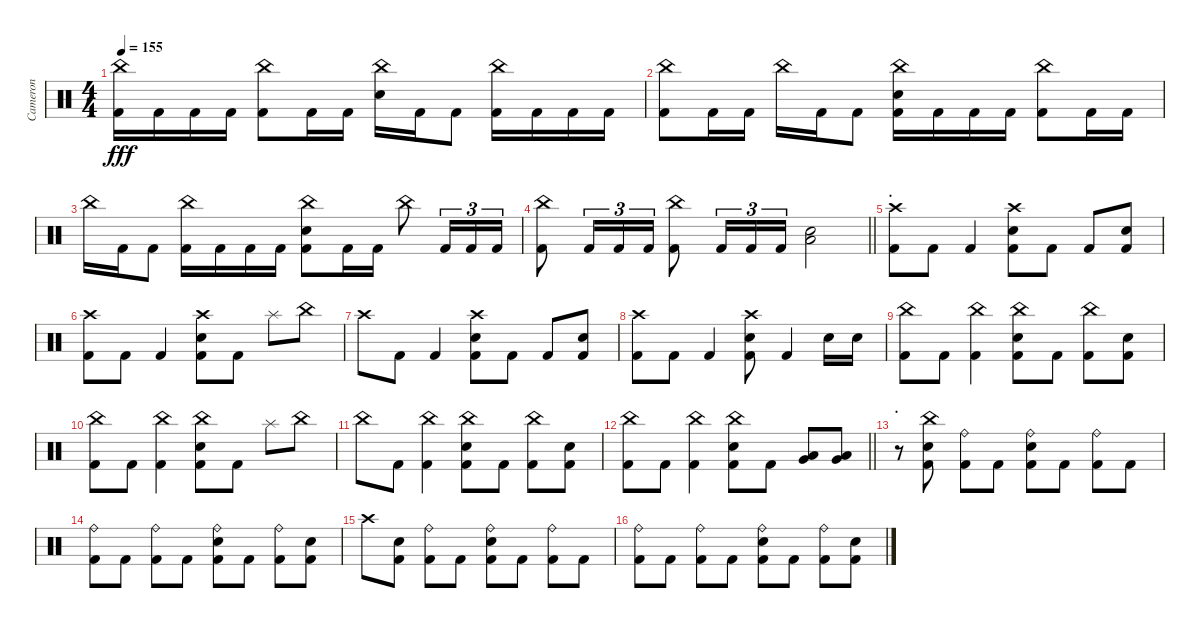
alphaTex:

\track ("Cameron" "Cameron") {instrument percussion}
\staff {score}
\articulation defaults
\ts (4 4)
\tempo 155
\clef neutral
\ks c
("China (hit)" "Kick (hit) 2").16{dy fff} "Kick (hit) 2".16 "Kick (hit) 2".16 "Kick (hit) 2".16 ("China (hit)" "Kick (hit) 2").8 "Kick (hit) 2".16 "Kick (hit) 2".16 ("China (hit)" "Electric Snare (hit)").16 "Kick (hit) 2".16 "Kick (hit) 2".8 ("China (hit)" "Kick (hit) 2").16 "Kick (hit) 2".16 "Kick (hit) 2".16 "Kick (hit) 2".16 |
("China (hit)" "Kick (hit) 2").8 "Kick (hit) 2".16 "Kick (hit) 2".16 "China (hit)".16 "Kick (hit) 2".16 "Kick (hit) 2".8 ("China (hit)" "Electric Snare (hit)" "Kick (hit) 2").16 "Kick (hit) 2".16 "Kick (hit) 2".16 "Kick (hit) 2".16 ("China (hit)" "Kick (hit) 2").8 "Kick (hit) 2".16 "Kick (hit) 2".16 |
"China (hit)".16 "Kick (hit) 2".16 "Kick (hit) 2".8 ("China (hit)" "Kick (hit) 2").16 "Kick (hit) 2".16 "Kick (hit) 2".16 "Kick (hit) 2".16 ("China (hit)" "Electric Snare (hit)" "Kick (hit) 2").8 "Kick (hit) 2".16 "Kick (hit) 2".16 "China (hit)".8 "Kick (hit) 2".16{tu (3 2)} "Kick (hit) 2".16{tu (3 2)} "Kick (hit) 2".16{tu (3 2)} |
\barLineRight lightlight
("China (hit)" "Kick (hit) 2").8 "Kick (hit) 2".16{tu (3 2)} "Kick (hit) 2".16{tu (3 2)} "Kick (hit) 2".16{tu (3 2)} ("China (hit)" "Kick (hit) 2").8 "Kick (hit) 2".16{tu (3 2)} "Kick (hit) 2".16{tu (3 2)} "Kick (hit) 2".16{tu (3 2)} ("Electric Snare (hit)" "Low Floor Tom (hit)").2 |
\section ("" ".")
("Crash high (hit)" "Kick (hit) 2").8 "Kick (hit) 2".8 "Kick (hit) 2".4 ("Crash high (hit)" "Electric Snare (hit)" "Kick (hit) 2").8 "Kick (hit) 2".8 "Kick (hit) 2".8 ("Electric Snare (hit)" "Kick (hit) 2").8 |
("Crash high (hit)" "Kick (hit) 2").8 "Kick (hit) 2".8 "Kick (hit) 2".4 ("Crash high (hit)" "Electric Snare (hit)" "Kick (hit) 2").8 "Kick (hit) 2".8 "Splash (hit)".8 "China (hit)".8 |
"Crash high (hit)".8 "Kick (hit) 2".8 "Kick (hit) 2".4 ("Crash high (hit)" "Electric Snare (hit)" "Kick (hit) 2").8 "Kick (hit) 2".8 "Kick (hit) 2".8 ("Electric Snare (hit)" "Kick (hit) 2").8 |
("Crash high (hit)" "Kick (hit) 2").8 "Kick (hit) 2".8 "Kick (hit) 2".4 ("Crash high (hit)" "Electric Snare (hit)" "Kick (hit) 2").8 "Kick (hit) 2".4 "Electric Snare (hit)".16 "Electric Snare (hit)".16 |
("China (hit)" "Kick (hit) 2").8 "Kick (hit) 2".8 ("China (hit)" "Kick (hit) 2").4 ("China (hit)" "Electric Snare (hit)" "Kick (hit) 2").8 "Kick (hit) 2".8 ("China (hit)" "Kick (hit) 2").8 ("Electric Snare (hit)" "Kick (hit) 2").8 |
("China (hit)" "Kick (hit) 2").8 "Kick (hit) 2".8 ("China (hit)" "Kick (hit) 2").4 ("China (hit)" "Electric Snare (hit)" "Kick (hit) 2").8 "Kick (hit) 2".8 "Splash (hit)".8 "China (hit)".8 |
"China (hit)".8 "Kick (hit) 2".8 ("China (hit)" "Kick (hit) 2").4 ("China (hit)" "Electric Snare (hit)" "Kick (hit) 2").8 "Kick (hit) 2".8 ("China (hit)" "Kick (hit) 2").8 ("Electric Snare (hit)" "Kick (hit) 2").8 |
\barLineRight lightlight
("China (hit)" "Kick (hit) 2").8 "Kick (hit) 2".8 ("China (hit)" "Kick (hit) 2").4 ("China (hit)" "Electric Snare (hit)" "Kick (hit) 2").8 "Kick (hit) 2".8 ("Very Low Tom (hit)" "Low Floor Tom (hit)").8 ("Very Low Tom (hit)" "Low Floor Tom (hit)").8 |
\section ("" ".")
r.8 ("China (hit)" "Electric Snare (hit)" "Kick (hit) 2").8 ("Ride (bell)" "Kick (hit) 2").8 "Kick (hit) 2".8 ("Ride (bell)" "Electric Snare (hit)" "Kick (hit) 2").8 "Kick (hit) 2".8 ("Ride (bell)" "Kick (hit) 2").8 "Kick (hit) 2".8 |
("Ride (bell)" "Kick (hit) 2").8 "Kick (hit) 2".8 ("Ride (bell)" "Kick (hit) 2").8 "Kick (hit) 2".8 ("Ride (bell)" "Electric Snare (hit)" "Kick (hit) 2").8 "Kick (hit) 2".8 ("Ride (bell)" "Kick (hit) 2").8 ("Electric Snare (hit)" "Kick (hit) 2").8 |
"Crash high (hit)".8 ("Electric Snare (hit)" "Kick (hit) 2").8 ("Ride (bell)" "Kick (hit) 2").8 "Kick (hit) 2".8 ("Ride (bell)" "Electric Snare (hit)" "Kick (hit) 2").8 "Kick (hit) 2".8 ("Ride (bell)" "Kick (hit) 2").8 "Kick (hit) 2".8 |
("Ride (bell)" "Kick (hit) 2").8 "Kick (hit) 2".8 ("Ride (bell)" "Kick (hit) 2").8 "Kick (hit) 2".8 ("Ride (bell)" "Electric Snare (hit)" "Kick (hit) 2").8 "Kick (hit) 2".8 ("Ride (bell)" "Kick (hit) 2").8 ("Electric Snare (hit)" "Kick (hit) 2").8
